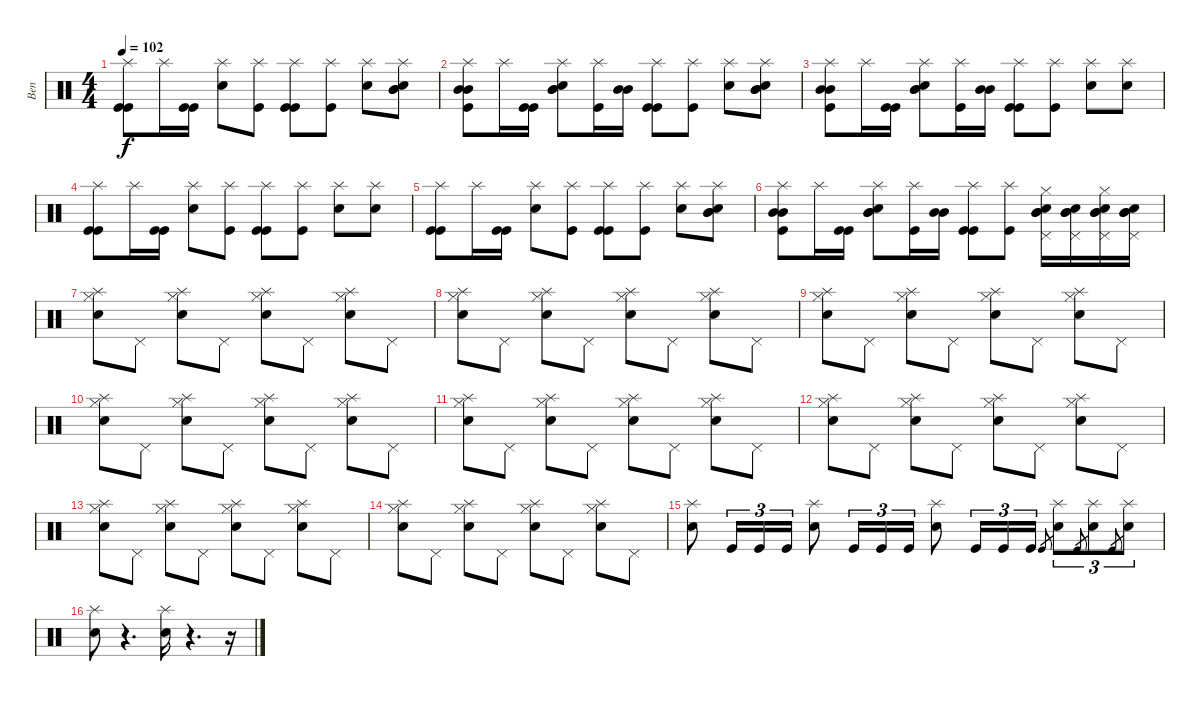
\track ("Ben" "Ben") {instrument percussion}
\staff {score}
\articulation defaults
\ts (4 4)
\tempo 102
\clef neutral
\ks c
("Splash (hit)" "Kick (hit)" "Kick (hit)").8{dy f} "Splash (hit)".16 ("Kick (hit)" "Kick (hit)").16 ("Splash (hit)" "Electric Snare (hit)").8 ("Splash (hit)" "Kick (hit)").8 ("Splash (hit)" "Kick (hit)" "Kick (hit)").8 ("Splash (hit)" "Kick (hit)").8 ("Splash (hit)" "Electric Snare (hit)").8 ("Splash (hit)" "Mid Tom (hit)" "Mid Tom (hit)" "Electric Snare (hit)").8 |
("Splash (hit)" "Mid Tom (hit)" "Mid Tom (hit)" "Kick (hit)").8 "Splash (hit)".16 ("Kick (hit)" "Kick (hit)").16 ("Splash (hit)" "Mid Tom (hit)" "Mid Tom (hit)" "Electric Snare (hit)").8 ("Splash (hit)" "Kick (hit)").16 ("Mid Tom (hit)" "Mid Tom (hit)").16 ("Splash (hit)" "Kick (hit)" "Kick (hit)").8 ("Splash (hit)" "Kick (hit)").8 ("Splash (hit)" "Electric Snare (hit)").8 ("Splash (hit)" "Mid Tom (hit)" "Mid Tom (hit)" "Electric Snare (hit)").8 |
("Splash (hit)" "Mid Tom (hit)" "Mid Tom (hit)" "Kick (hit)").8 "Splash (hit)".16 ("Kick (hit)" "Kick (hit)").16 ("Splash (hit)" "Mid Tom (hit)" "Mid Tom (hit)" "Electric Snare (hit)").8 ("Splash (hit)" "Kick (hit)").16 ("Mid Tom (hit)" "Mid Tom (hit)").16 ("Splash (hit)" "Kick (hit)" "Kick (hit)").8 ("Splash (hit)" "Kick (hit)").8 ("Splash (hit)" "Electric Snare (hit)").8 ("Splash (hit)" "Electric Snare (hit)").8 |
("Splash (hit)" "Kick (hit)" "Kick (hit)").8 "Splash (hit)".16 ("Kick (hit)" "Kick (hit)").16 ("Splash (hit)" "Electric Snare (hit)").8 ("Splash (hit)" "Kick (hit)").8 ("Splash (hit)" "Kick (hit)" "Kick (hit)").8 ("Splash (hit)" "Kick (hit)").8 ("Splash (hit)" "Electric Snare (hit)").8 ("Splash (hit)" "Electric Snare (hit)").8 |
("Splash (hit)" "Kick (hit)" "Kick (hit)").8 "Splash (hit)".16 ("Kick (hit)" "Kick (hit)").16 ("Splash (hit)" "Electric Snare (hit)").8 ("Splash (hit)" "Kick (hit)").8 ("Splash (hit)" "Kick (hit)" "Kick (hit)").8 ("Splash (hit)" "Kick (hit)").8 ("Splash (hit)" "Electric Snare (hit)").8 ("Splash (hit)" "Mid Tom (hit)" "Mid Tom (hit)" "Electric Snare (hit)").8 |
("Splash (hit)" "Mid Tom (hit)" "Mid Tom (hit)" "Kick (hit)").8 "Splash (hit)".16 ("Kick (hit)" "Kick (hit)").16 ("Splash (hit)" "Mid Tom (hit)" "Mid Tom (hit)" "Electric Snare (hit)").8 ("Splash (hit)" "Kick (hit)").16 ("Mid Tom (hit)" "Mid Tom (hit)").16 ("Splash (hit)" "Kick (hit)" "Kick (hit)").8 ("Splash (hit)" "Kick (hit)").8 ("Pedal Hi-Hat (hit)" "Hi-Hat (closed)" "Mid Tom (hit)" "Mid Tom (hit)" "Electric Snare (hit)").16 ("Pedal Hi-Hat (hit)" "Mid Tom (hit)" "Mid Tom (hit)" "Electric Snare (hit)").16 ("Pedal Hi-Hat (hit)" "Hi-Hat (closed)" "Mid Tom (hit)" "Mid Tom (hit)" "Electric Snare (hit)").16 ("Pedal Hi-Hat (hit)" "Mid Tom (hit)" "Mid Tom (hit)" "Electric Snare (hit)").16 |
("Splash (hit)" "Hi-Hat (closed)" "Snare (hit) 2").8 "Pedal Hi-Hat (hit)".8 ("Splash (hit)" "Hi-Hat (closed)" "Electric Snare (hit)").8 "Pedal Hi-Hat (hit)".8 ("Splash (hit)" "Hi-Hat (closed)" "Snare (hit) 2").8 "Pedal Hi-Hat (hit)".8 ("Splash (hit)" "Hi-Hat (closed)" "Electric Snare (hit)").8 "Pedal Hi-Hat (hit)".8 |
("Splash (hit)" "Hi-Hat (closed)" "Snare (hit) 2").8 "Pedal Hi-Hat (hit)".8 ("Splash (hit)" "Hi-Hat (closed)" "Electric Snare (hit)").8 "Pedal Hi-Hat (hit)".8 ("Splash (hit)" "Hi-Hat (closed)" "Snare (hit) 2").8 "Pedal Hi-Hat (hit)".8 ("Splash (hit)" "Hi-Hat (closed)" "Electric Snare (hit)").8 "Pedal Hi-Hat (hit)".8 |
("Splash (hit)" "Hi-Hat (closed)" "Snare (hit) 2").8 "Pedal Hi-Hat (hit)".8 ("Splash (hit)" "Hi-Hat (closed)" "Electric Snare (hit)").8 "Pedal Hi-Hat (hit)".8 ("Splash (hit)" "Hi-Hat (closed)" "Snare (hit) 2").8 "Pedal Hi-Hat (hit)".8 ("Splash (hit)" "Hi-Hat (closed)" "Electric Snare (hit)").8 "Pedal Hi-Hat (hit)".8 |
("Splash (hit)" "Hi-Hat (closed)" "Snare (hit) 2").8 "Pedal Hi-Hat (hit)".8 ("Splash (hit)" "Hi-Hat (closed)" "Electric Snare (hit)").8 "Pedal Hi-Hat (hit)".8 ("Splash (hit)" "Hi-Hat (closed)" "Snare (hit) 2").8 "Pedal Hi-Hat (hit)".8 ("Splash (hit)" "Hi-Hat (closed)" "Electric Snare (hit)").8 "Pedal Hi-Hat (hit)".8 |
("Splash (hit)" "Hi-Hat (closed)" "Snare (hit) 2").8 "Pedal Hi-Hat (hit)".8 ("Splash (hit)" "Hi-Hat (closed)" "Electric Snare (hit)").8 "Pedal Hi-Hat (hit)".8 ("Splash (hit)" "Hi-Hat (closed)" "Snare (hit) 2").8 "Pedal Hi-Hat (hit)".8 ("Splash (hit)" "Hi-Hat (closed)" "Electric Snare (hit)").8 "Pedal Hi-Hat (hit)".8 |
("Splash (hit)" "Hi-Hat (closed)" "Snare (hit) 2").8 "Pedal Hi-Hat (hit)".8 ("Splash (hit)" "Hi-Hat (closed)" "Electric Snare (hit)").8 "Pedal Hi-Hat (hit)".8 ("Splash (hit)" "Hi-Hat (closed)" "Snare (hit) 2").8 "Pedal Hi-Hat (hit)".8 ("Splash (hit)" "Hi-Hat (closed)" "Electric Snare (hit)").8 "Pedal Hi-Hat (hit)".8 |
("Splash (hit)" "Hi-Hat (closed)" "Snare (hit) 2").8 "Pedal Hi-Hat (hit)".8 ("Splash (hit)" "Hi-Hat (closed)" "Electric Snare (hit)").8 "Pedal Hi-Hat (hit)".8 ("Splash (hit)" "Hi-Hat (closed)" "Snare (hit) 2").8 "Pedal Hi-Hat (hit)".8 ("Splash (hit)" "Hi-Hat (closed)" "Electric Snare (hit)").8 "Pedal Hi-Hat (hit)".8 |
("Splash (hit)" "Hi-Hat (closed)" "Snare (hit) 2").8 "Pedal Hi-Hat (hit)".8 ("Splash (hit)" "Hi-Hat (closed)" "Electric Snare (hit)").8 "Pedal Hi-Hat (hit)".8 ("Splash (hit)" "Hi-Hat (closed)" "Snare (hit) 2").8 "Pedal Hi-Hat (hit)".8 ("Splash (hit)" "Hi-Hat (closed)" "Electric Snare (hit)").8 "Pedal Hi-Hat (hit)".8 |
("Splash (hit)" "Snare (hit) 2").8 "Kick (hit)".16{tu (3 2)} "Kick (hit)".16{tu (3 2)} "Kick (hit)".16{tu (3 2)} ("Splash (hit)" "Snare (hit) 2").8 "Kick (hit)".16{tu (3 2)} "Kick (hit)".16{tu (3 2)} "Kick (hit)".16{tu (3 2)} ("Splash (hit)" "Snare (hit) 2").8 "Kick (hit)".16{tu (3 2)} "Kick (hit)".16{tu (3 2)} "Kick (hit)".16{tu (3 2)} "Kick (hit)".8{gr} ("Splash (hit)" "Snare (hit) 2").8{tu (3 2)} "Kick (hit)".8{gr} ("Splash (hit)" "Snare (hit) 2").8{tu (3 2)} "Kick (hit)".8{gr} ("Splash (hit)" "Snare (hit) 2").8{tu (3 2)} |
("Splash (hit)" "Snare (hit) 2").8 r.4{d} ("Splash (hit)" "Snare (hit) 2").16 r.4{d} r.16
